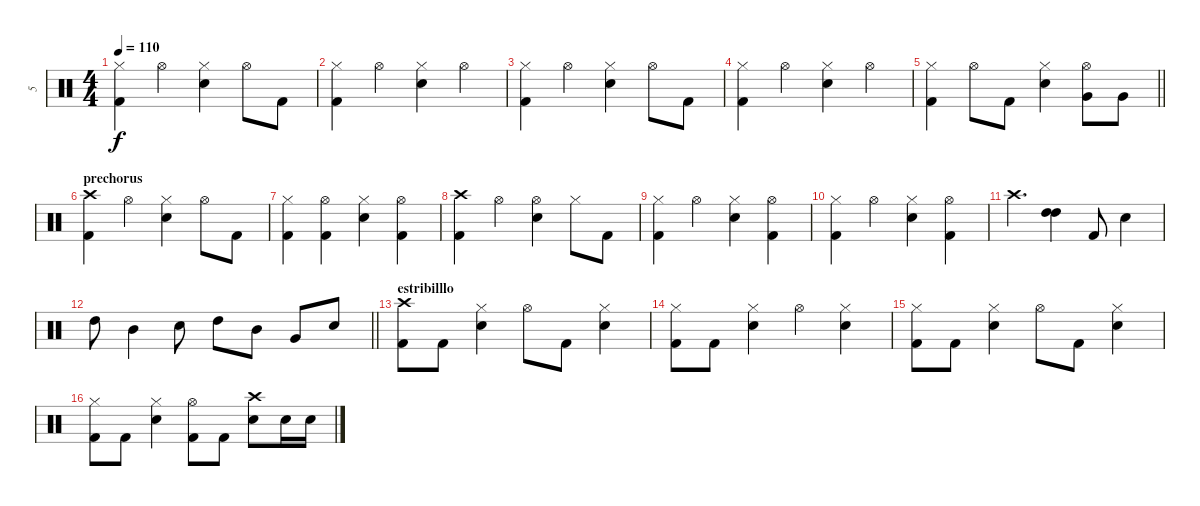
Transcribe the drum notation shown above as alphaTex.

\track ("5" "5") {instrument percussion}
\staff {score}
\articulation defaults
\ts (4 4)
\tempo 110
\clef neutral
\ks c
("Hi-Hat (closed)" "Kick (hit) 2").4{dy f} "Hi-Hat (open)".4 ("Hi-Hat (closed)" "Electric Snare (hit)").4 "Hi-Hat (open)".8 "Kick (hit) 2".8 |
("Hi-Hat (closed)" "Kick (hit) 2").4 "Hi-Hat (open)".4 ("Hi-Hat (closed)" "Electric Snare (hit)").4 "Hi-Hat (open)".4 |
("Hi-Hat (closed)" "Kick (hit) 2").4 "Hi-Hat (open)".4 ("Hi-Hat (closed)" "Electric Snare (hit)").4 "Hi-Hat (open)".8 "Kick (hit) 2".8 |
("Hi-Hat (closed)" "Kick (hit) 2").4 "Hi-Hat (open)".4 ("Hi-Hat (closed)" "Electric Snare (hit)").4 "Hi-Hat (open)".4 |
\barLineRight lightlight
("Hi-Hat (closed)" "Kick (hit) 2").4 "Hi-Hat (open)".8 "Kick (hit) 2".8 ("Hi-Hat (closed)" "Electric Snare (hit)").4 ("Hi-Hat (open)" "Very Low Tom (hit)").8 "Very Low Tom (hit)".8 |
\section ("" "prechorus")
("Crash high (hit)" "Kick (hit) 2").4 "Hi-Hat (open)".4 ("Hi-Hat (closed)" "Electric Snare (hit)").4 "Hi-Hat (open)".8 "Kick (hit) 2".8 |
("Hi-Hat (closed)" "Kick (hit) 2").4 ("Hi-Hat (open)" "Kick (hit) 2").4 ("Hi-Hat (closed)" "Electric Snare (hit)").4 ("Hi-Hat (open)" "Kick (hit) 2").4 |
("Crash high (hit)" "Kick (hit) 2").4 "Hi-Hat (open)".4 ("Hi-Hat (open)" "Electric Snare (hit)").4 "Hi-Hat (closed)".8 "Kick (hit) 2".8 |
("Hi-Hat (closed)" "Kick (hit) 2").4 "Hi-Hat (open)".4 ("Hi-Hat (closed)" "Electric Snare (hit)").4 ("Hi-Hat (open)" "Kick (hit) 2").4 |
("Hi-Hat (closed)" "Kick (hit) 2").4 "Hi-Hat (open)".4 ("Hi-Hat (closed)" "Electric Snare (hit)").4 ("Hi-Hat (open)" "Kick (hit) 2").4 |
"Crash high (hit)".4{d} ("High Tom (hit)" "High Tom (hit)").4 "Kick (hit) 2".8 "Electric Snare (hit)".4 |
\barLineRight lightlight "High Tom (hit)".8 "Mid Tom (hit)".4 "Electric Snare (hit)".8 "High Tom (hit)".8 "Mid Tom (hit)".8 "Very Low Tom (hit)".8 "Electric Snare (hit)".8
|
\section ("" "estribilllo")
("Crash high (hit)" "Kick (hit) 2").8 "Kick (hit) 2".8 ("Hi-Hat (closed)" "Electric Snare (hit)").4 "Hi-Hat (open)".8 "Kick (hit) 2".8 ("Hi-Hat (closed)" "Electric Snare (hit)").4 |
("Hi-Hat (closed)" "Kick (hit) 2").8 "Kick (hit) 2".8 ("Hi-Hat (closed)" "Electric Snare (hit)").4 "Hi-Hat (open)".4 ("Hi-Hat (closed)" "Electric Snare (hit)").4 |
("Hi-Hat (closed)" "Kick (hit) 2").8 "Kick (hit) 2".8 ("Hi-Hat (closed)" "Electric Snare (hit)").4 "Hi-Hat (open)".8 "Kick (hit) 2".8 ("Hi-Hat (closed)" "Electric Snare (hit)").4 |
("Hi-Hat (closed)" "Kick (hit) 2").8 "Kick (hit) 2".8 ("Hi-Hat (closed)" "Electric Snare (hit)").4 ("Hi-Hat (open)" "Kick (hit) 2").8 "Kick (hit) 2".8 ("Crash high (hit)" "Electric Snare (hit)").8 "Electric Snare (hit)".16 "Electric Snare (hit)".16
